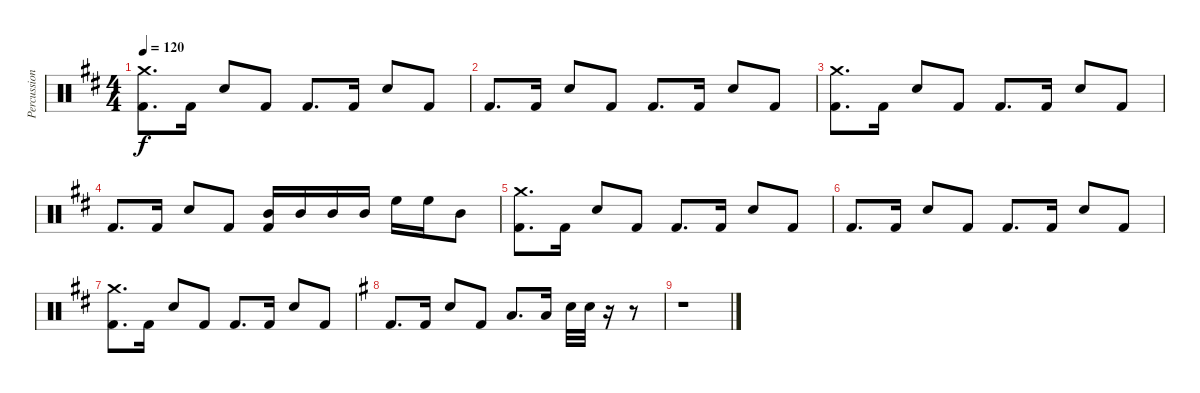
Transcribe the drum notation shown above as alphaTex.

\track ("Percussion" "Percussion") {instrument percussion}
\staff {score}
\articulation defaults
\ts (4 4)
\tempo 120
\clef neutral
\ks d
("Crash medium (hit)" "Kick (hit) 2").8{d dy f} "Kick (hit) 2".16 "Snare (hit) 2".8 "Kick (hit) 2".8 "Kick (hit) 2".8{d} "Kick (hit) 2".16 "Snare (hit) 2".8 "Kick (hit) 2".8 |
"Kick (hit) 2".8{d} "Kick (hit) 2".16 "Snare (hit) 2".8 "Kick (hit) 2".8 "Kick (hit) 2".8{d} "Kick (hit) 2".16 "Snare (hit) 2".8 "Kick (hit) 2".8 |
("Crash medium (hit)" "Kick (hit) 2").8{d} "Kick (hit) 2".16 "Snare (hit) 2".8 "Kick (hit) 2".8 "Kick (hit) 2".8{d} "Kick (hit) 2".16 "Snare (hit) 2".8 "Kick (hit) 2".8 |
"Kick (hit) 2".8{d} "Kick (hit) 2".16 "Snare (hit) 2".8 "Kick (hit) 2".8 ("Mid Tom (hit)" "Kick (hit) 2").16 "Mid Tom (hit)".16 "Mid Tom (hit)".16 "Mid Tom (hit)".16 "High Floor Tom (hit)".16 "High Floor Tom (hit)".16 "Mid Tom (hit)".8 |
("Crash medium (hit)" "Kick (hit) 2").8{d} "Kick (hit) 2".16 "Snare (hit) 2".8 "Kick (hit) 2".8 "Kick (hit) 2".8{d} "Kick (hit) 2".16 "Snare (hit) 2".8 "Kick (hit) 2".8 |
"Kick (hit) 2".8{d} "Kick (hit) 2".16 "Snare (hit) 2".8 "Kick (hit) 2".8 "Kick (hit) 2".8{d} "Kick (hit) 2".16 "Snare (hit) 2".8 "Kick (hit) 2".8 |
("Crash medium (hit)" "Kick (hit) 2").8{d} "Kick (hit) 2".16 "Snare (hit) 2".8 "Kick (hit) 2".8 "Kick (hit) 2".8{d} "Kick (hit) 2".16 "Snare (hit) 2".8 "Kick (hit) 2".8 |
\ks g "Kick (hit) 2".8{d} "Kick (hit) 2".16 "Snare (hit) 2".8 "Kick (hit) 2".8 "Low Floor Tom (hit)".8{d} "Low Floor Tom (hit)".16 "Snare (hit) 2".32 "Snare (hit) 2".32
r.16 r.8 |
r.1
